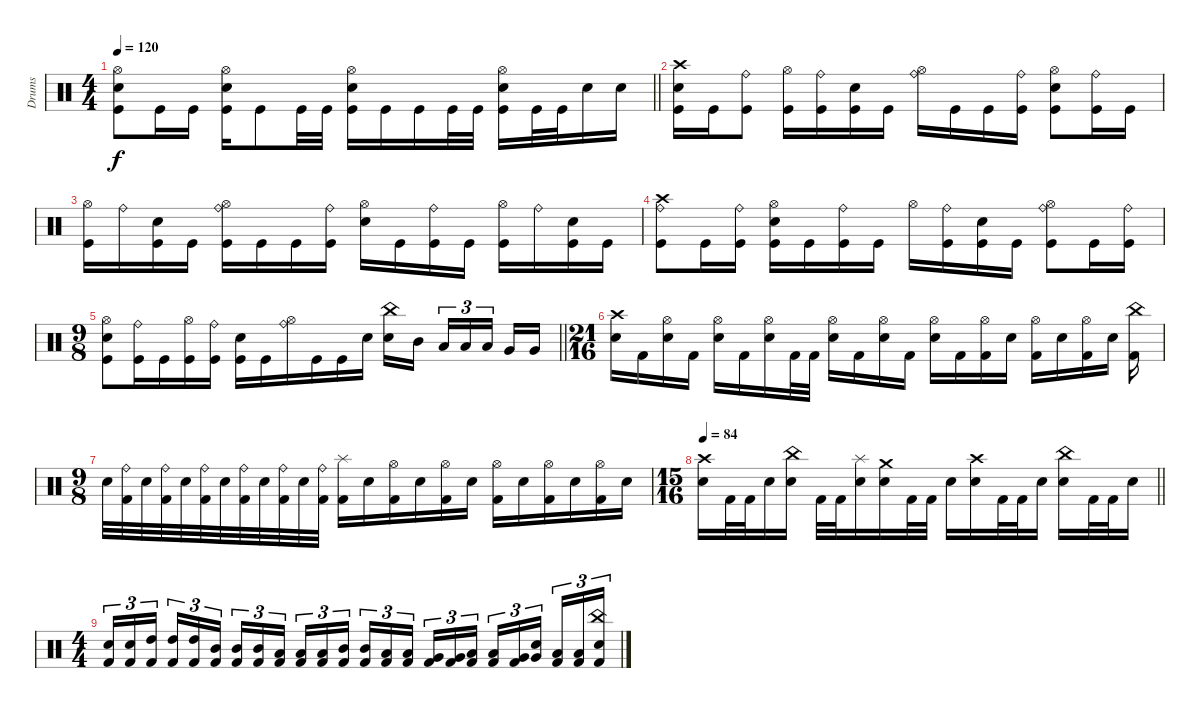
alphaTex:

\track ("Drums" "Drums") {instrument percussion}
\staff
\articulation defaults
\ts (4 4)
\tempo 120
\clef neutral
\barLineRight lightlight
\ks c
("Hi-Hat (open)" "Electric Snare (hit)" "Kick (hit)").8{dy f} "Kick (hit)".16 "Kick (hit)".16 ("Hi-Hat (open)" "Electric Snare (hit)" "Kick (hit)").16 "Kick (hit)".8 "Kick (hit)".32 "Kick (hit)".32 ("Hi-Hat (open)" "Electric Snare (hit)" "Kick (hit)").16 "Kick (hit)".16 "Kick (hit)".16 "Kick (hit)".32 "Kick (hit)".32 ("Hi-Hat (open)" "Electric Snare (hit)" "Kick (hit)").16 "Kick (hit)".32 "Kick (hit)".32 "Electric Snare (hit)".16 "Electric Snare (hit)".16 |
\section ("" "")
("Crash high (hit)" "Electric Snare (hit)" "Kick (hit)").16 "Kick (hit)".16 ("Ride (bell)" "Kick (hit)").8 ("Hi-Hat (open)" "Kick (hit)").16 ("Ride (bell)" "Kick (hit)").16 ("Electric Snare (hit)" "Kick (hit)").16 "Kick (hit)".16 ("Ride (bell)" "Hi-Hat (open)").16 "Kick (hit)".16 "Kick (hit)".16 ("Ride (bell)" "Kick (hit)").16 ("Hi-Hat (open)" "Electric Snare (hit)" "Kick (hit)").8 ("Ride (bell)" "Kick (hit)").16 "Kick (hit)".16 |
("Hi-Hat (open)" "Kick (hit)").16 "Ride (bell)".16 ("Electric Snare (hit)" "Kick (hit)").16 "Kick (hit)".16 ("Ride (bell)" "Hi-Hat (open)" "Kick (hit)").16 "Kick (hit)".16 "Kick (hit)".16 ("Ride (bell)" "Kick (hit)").16 ("Hi-Hat (open)" "Electric Snare (hit)").16 "Kick (hit)".16 ("Ride (bell)" "Kick (hit)").16 "Kick (hit)".16 ("Hi-Hat (open)" "Kick (hit)").16 "Ride (bell)".16 ("Electric Snare (hit)" "Kick (hit)").16 "Kick (hit)".16 |
("Crash high (hit)" "Ride (bell)" "Kick (hit)").8 "Kick (hit)".16 ("Ride (bell)" "Kick (hit)").16 ("Hi-Hat (open)" "Electric Snare (hit)" "Kick (hit)").16 "Kick (hit)".16 ("Ride (bell)" "Kick (hit)").16 "Kick (hit)".16 "Hi-Hat (open)".16 ("Ride (bell)" "Kick (hit)").16 ("Electric Snare (hit)" "Kick (hit)").16 "Kick (hit)".16 ("Ride (bell)" "Hi-Hat (open)" "Kick (hit)").8 "Kick (hit)".16 ("Ride (bell)" "Kick (hit)").16 |
\ts (9 8)
\barLineRight lightlight
("Hi-Hat (open)" "Electric Snare (hit)" "Kick (hit)").8 ("Ride (bell)" "Kick (hit)").16 "Kick (hit)".16 ("Hi-Hat (open)" "Kick (hit)").16 ("Ride (bell)" "Kick (hit)").16 ("Electric Snare (hit)" "Kick (hit)").16 "Kick (hit)".16 ("Ride (bell)" "Hi-Hat (open)").16 "Kick (hit)".16 "Kick (hit)".16 "Electric Snare (hit)".16 ("China (hit)" "Electric Snare (hit)").16 "Mid Tom (hit)".16{beam splitsecondary} "Low Tom (hit)".16{tu (3 2)} "Low Tom (hit)".16{tu (3 2)} "Low Tom (hit)".16{tu (3 2) beam splitsecondary} "Very Low Tom (hit)".16 "Very Low Tom (hit)".16 |
\ts (21 16)
("Crash high (hit)" "Electric Snare (hit)").16 "Kick (hit) 2".16 ("Hi-Hat (open)" "Electric Snare (hit)").16 "Kick (hit) 2".16 ("Hi-Hat (open)" "Electric Snare (hit)").16 "Kick (hit) 2".16 ("Hi-Hat (open)" "Electric Snare (hit)").16 "Kick (hit) 2".32 "Kick (hit) 2".32 ("Hi-Hat (open)" "Electric Snare (hit)").16 "Kick (hit) 2".16 ("Hi-Hat (open)" "Electric Snare (hit)").16 "Kick (hit) 2".16 ("Hi-Hat (open)" "Electric Snare (hit)").16 "Kick (hit) 2".16 ("Hi-Hat (open)" "Kick (hit) 2").16 "Electric Snare (hit)".16 ("Hi-Hat (open)" "Kick (hit) 2").16 "Electric Snare (hit)".16 ("Hi-Hat (open)" "Kick (hit) 2").16 "Electric Snare (hit)".16 ("China (hit)" "Kick (hit) 2").16 |
\ts (9 8)
"Electric Snare (hit)".32 ("Ride (bell)" "Kick (hit) 2").32 "Electric Snare (hit)".32 ("Ride (bell)" "Kick (hit) 2").32 "Electric Snare (hit)".32 ("Ride (bell)" "Kick (hit) 2").32 "Electric Snare (hit)".32 ("Ride (bell)" "Kick (hit) 2").32 "Electric Snare (hit)".32 ("Ride (bell)" "Kick (hit) 2").32 "Electric Snare (hit)".32 ("Ride (bell)" "Kick (hit) 2").32 ("Splash (hit)" "Kick (hit) 2").16 "Electric Snare (hit)".16 ("Hi-Hat (open)" "Kick (hit) 2").16 "Electric Snare (hit)".16 ("Hi-Hat (open)" "Kick (hit) 2").16 "Electric Snare (hit)".16 ("Hi-Hat (open)" "Kick (hit) 2").16 "Electric Snare (hit)".16 ("Hi-Hat (open)" "Kick (hit) 2").16 "Electric Snare (hit)".16 ("Hi-Hat (open)" "Kick (hit) 2").16 "Electric Snare (hit)".16 |
\ts (15 16)
\tempo 84
\barLineRight lightlight
("Crash high (hit)" "Electric Snare (hit)").16 "Kick (hit) 2".32 "Kick (hit) 2".32 "Electric Snare (hit)".16 ("China (hit)" "Electric Snare (hit)").16 "Kick (hit) 2".32 "Kick (hit) 2".32 ("Splash (hit)" "Electric Snare (hit)").16 ("Crash medium (hit)" "Electric Snare (hit)").16 "Kick (hit) 2".32 "Kick (hit) 2".32 "Electric Snare (hit)".16 ("Crash high (hit)" "Electric Snare (hit)").16 "Kick (hit) 2".32 "Kick (hit) 2".32 "Electric Snare (hit)".16 ("China (hit)" "Electric Snare (hit)").16 "Kick (hit) 2".32 "Kick (hit) 2".32 "Electric Snare (hit)".16 |
\ts (4 4)
("Electric Snare (hit)" "Kick (hit) 2").16{tu (3 2)} ("Electric Snare (hit)" "Kick (hit) 2").16{tu (3 2)} ("High Tom (hit)" "Kick (hit) 2").16{tu (3 2) beam splitsecondary} ("High Tom (hit)" "Kick (hit) 2").16{tu (3 2)} ("High Tom (hit)" "Kick (hit) 2").16{tu (3 2)} ("Mid Tom (hit)" "Kick (hit) 2").16{tu (3 2)} ("Mid Tom (hit)" "Kick (hit) 2").16{tu (3 2)} ("Mid Tom (hit)" "Kick (hit) 2").16{tu (3 2)} ("Low Tom (hit)" "Kick (hit) 2").16{tu (3 2) beam splitsecondary} ("Low Tom (hit)" "Kick (hit) 2").16{tu (3 2)} ("Low Tom (hit)" "Kick (hit) 2").16{tu (3 2)} ("Mid Tom (hit)" "Kick (hit) 2").16{tu (3 2)} ("Mid Tom (hit)" "Kick (hit) 2").16{tu (3 2)} ("Low Tom (hit)" "Kick (hit) 2").16{tu (3 2)} ("Low Tom (hit)" "Kick (hit) 2").16{tu (3 2) beam splitsecondary} ("Very Low Tom (hit)" "Kick (hit) 2").16{tu (3 2)} ("Very Low Tom (hit)" "Kick (hit) 2").16{tu (3 2)} ("Low Tom (hit)" "Kick (hit) 2").16{tu (3 2)} ("Low Tom (hit)" "Kick (hit) 2").16{tu (3 2)} ("Very Low Tom (hit)" "Kick (hit) 2").16{tu (3 2)} ("Very Low Tom (hit)" "Snare (hit)").16{tu (3 2) beam splitsecondary} ("Low Floor Tom (hit)" "Kick (hit) 2").16{tu (3 2)} ("Low Floor Tom (hit)" "Kick (hit) 2").16{tu (3 2)} ("China (hit)" "Electric Snare (hit)" "Kick (hit) 2").16{tu (3 2)}
